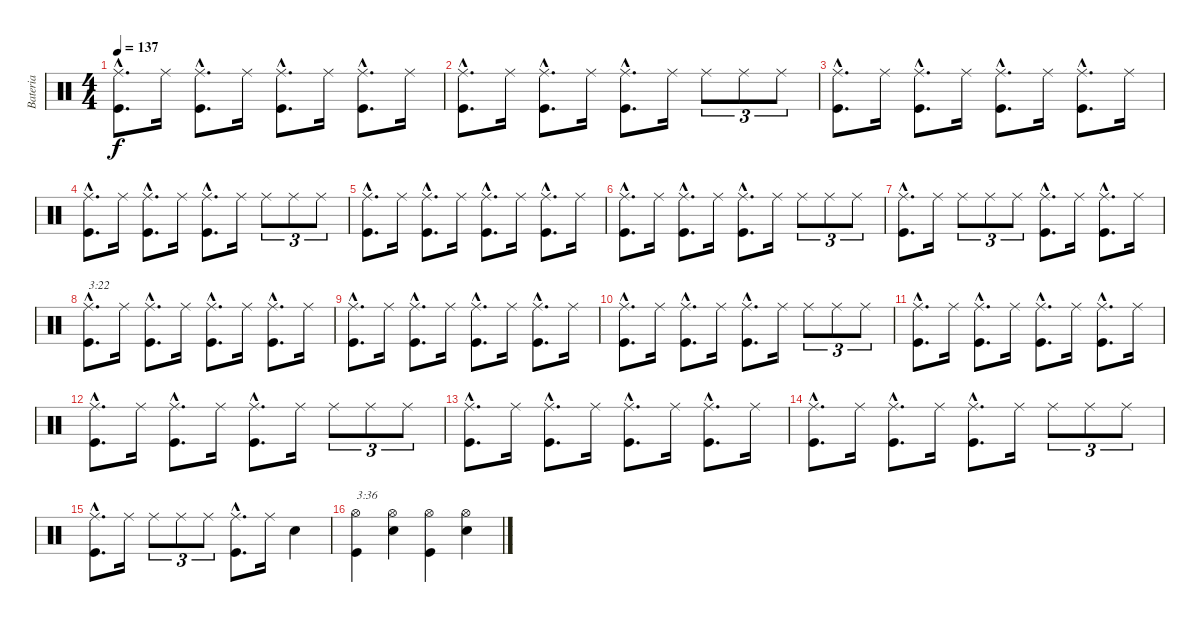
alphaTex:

\track ("Bateria" "Bateria") {instrument percussion}
\staff {score}
\articulation defaults
\ts (4 4)
\tempo 137
\clef neutral
\ks c
("Kick (hit)"{hac} "Ride (middle)"{hac}).8{d dy f} "Ride (middle)".16 ("Kick (hit)"{hac} "Ride (middle)"{hac}).8{d} "Ride (middle)".16 ("Kick (hit)"{hac} "Ride (middle)"{hac}).8{d} "Ride (middle)".16 ("Kick (hit)"{hac} "Ride (middle)"{hac}).8{d} "Ride (middle)".16 |
("Kick (hit)"{hac} "Ride (middle)"{hac}).8{d} "Ride (middle)".16 ("Kick (hit)"{hac} "Ride (middle)"{hac}).8{d} "Ride (middle)".16 ("Kick (hit)"{hac} "Ride (middle)"{hac}).8{d} "Ride (middle)".16 "Ride (middle)".8{tu (3 2)} "Ride (middle)".8{tu (3 2)} "Ride (middle)".8{tu (3 2)} |
("Kick (hit)"{hac} "Ride (middle)"{hac}).8{d} "Ride (middle)".16 ("Kick (hit)"{hac} "Ride (middle)"{hac}).8{d} "Ride (middle)".16 ("Kick (hit)"{hac} "Ride (middle)"{hac}).8{d} "Ride (middle)".16 ("Kick (hit)"{hac} "Ride (middle)"{hac}).8{d} "Ride (middle)".16 |
("Kick (hit)"{hac} "Ride (middle)"{hac}).8{d} "Ride (middle)".16 ("Kick (hit)"{hac} "Ride (middle)"{hac}).8{d} "Ride (middle)".16 ("Kick (hit)"{hac} "Ride (middle)"{hac}).8{d} "Ride (middle)".16 "Ride (middle)".8{tu (3 2)} "Ride (middle)".8{tu (3 2)} "Ride (middle)".8{tu (3 2)} |
("Kick (hit)"{hac} "Ride (middle)"{hac}).8{d} "Ride (middle)".16 ("Kick (hit)"{hac} "Ride (middle)"{hac}).8{d} "Ride (middle)".16 ("Kick (hit)"{hac} "Ride (middle)"{hac}).8{d} "Ride (middle)".16 ("Kick (hit)"{hac} "Ride (middle)"{hac}).8{d} "Ride (middle)".16 |
("Kick (hit)"{hac} "Ride (middle)"{hac}).8{d} "Ride (middle)".16 ("Kick (hit)"{hac} "Ride (middle)"{hac}).8{d} "Ride (middle)".16 ("Kick (hit)"{hac} "Ride (middle)"{hac}).8{d} "Ride (middle)".16 "Ride (middle)".8{tu (3 2)} "Ride (middle)".8{tu (3 2)} "Ride (middle)".8{tu (3 2)} |
("Kick (hit)"{hac} "Ride (middle)"{hac}).8{d} "Ride (middle)".16 "Ride (middle)".8{tu (3 2)} "Ride (middle)".8{tu (3 2)} "Ride (middle)".8{tu (3 2)} ("Kick (hit)"{hac} "Ride (middle)"{hac}).8{d} "Ride (middle)".16 ("Kick (hit)"{hac} "Ride (middle)"{hac}).8{d} "Ride (middle)".16 |
("Kick (hit)"{hac} "Ride (middle)"{hac}).8{d txt "3:22"} "Ride (middle)".16 ("Kick (hit)"{hac} "Ride (middle)"{hac}).8{d} "Ride (middle)".16 ("Kick (hit)"{hac} "Ride (middle)"{hac}).8{d} "Ride (middle)".16 ("Kick (hit)"{hac} "Ride (middle)"{hac}).8{d} "Ride (middle)".16 |
("Kick (hit)"{hac} "Ride (middle)"{hac}).8{d} "Ride (middle)".16 ("Kick (hit)"{hac} "Ride (middle)"{hac}).8{d} "Ride (middle)".16 ("Kick (hit)"{hac} "Ride (middle)"{hac}).8{d} "Ride (middle)".16 ("Kick (hit)"{hac} "Ride (middle)"{hac}).8{d} "Ride (middle)".16 |
("Kick (hit)"{hac} "Ride (middle)"{hac}).8{d} "Ride (middle)".16 ("Kick (hit)"{hac} "Ride (middle)"{hac}).8{d} "Ride (middle)".16 ("Kick (hit)"{hac} "Ride (middle)"{hac}).8{d} "Ride (middle)".16 "Ride (middle)".8{tu (3 2)} "Ride (middle)".8{tu (3 2)} "Ride (middle)".8{tu (3 2)} |
("Kick (hit)"{hac} "Ride (middle)"{hac}).8{d} "Ride (middle)".16 ("Kick (hit)"{hac} "Ride (middle)"{hac}).8{d} "Ride (middle)".16 ("Kick (hit)"{hac} "Ride (middle)"{hac}).8{d} "Ride (middle)".16 ("Kick (hit)"{hac} "Ride (middle)"{hac}).8{d} "Ride (middle)".16 |
("Kick (hit)"{hac} "Ride (middle)"{hac}).8{d} "Ride (middle)".16 ("Kick (hit)"{hac} "Ride (middle)"{hac}).8{d} "Ride (middle)".16 ("Kick (hit)"{hac} "Ride (middle)"{hac}).8{d} "Ride (middle)".16 "Ride (middle)".8{tu (3 2)} "Ride (middle)".8{tu (3 2)} "Ride (middle)".8{tu (3 2)} |
("Kick (hit)"{hac} "Ride (middle)"{hac}).8{d} "Ride (middle)".16 ("Kick (hit)"{hac} "Ride (middle)"{hac}).8{d} "Ride (middle)".16 ("Kick (hit)"{hac} "Ride (middle)"{hac}).8{d} "Ride (middle)".16 ("Kick (hit)"{hac} "Ride (middle)"{hac}).8{d} "Ride (middle)".16 |
("Kick (hit)"{hac} "Ride (middle)"{hac}).8{d} "Ride (middle)".16 ("Kick (hit)"{hac} "Ride (middle)"{hac}).8{d} "Ride (middle)".16 ("Kick (hit)"{hac} "Ride (middle)"{hac}).8{d} "Ride (middle)".16 "Ride (middle)".8{tu (3 2)} "Ride (middle)".8{tu (3 2)} "Ride (middle)".8{tu (3 2)} |
("Kick (hit)"{hac} "Ride (middle)"{hac}).8{d} "Ride (middle)".16 "Ride (middle)".8{tu (3 2)} "Ride (middle)".8{tu (3 2)} "Ride (middle)".8{tu (3 2)} ("Kick (hit)"{hac} "Ride (middle)"{hac}).8{d} "Ride (middle)".16 "Snare (hit) 2".4 |
("Kick (hit)" "Hi-Hat (open)").4{txt "3:36"} ("Snare (hit) 2" "Hi-Hat (open)").4 ("Kick (hit)" "Hi-Hat (open)").4 ("Snare (hit) 2" "Hi-Hat (open)").4
